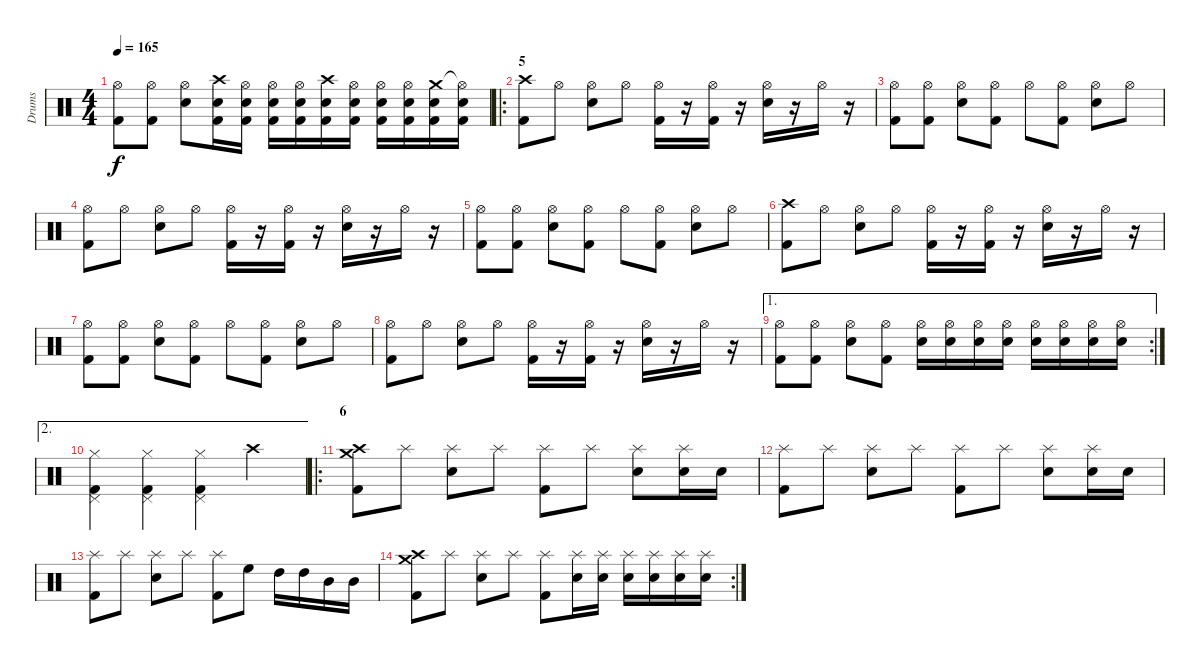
\track ("Drums" "Drums") {instrument percussion}
\staff {score}
\articulation defaults
\ts (4 4)
\tempo 165
\clef neutral
\ks c
("Hi-Hat (open)" "Kick (hit) 2").8{dy f} ("Hi-Hat (open)" "Kick (hit) 2").8 ("Hi-Hat (open)" "Snare (hit) 2").8 ("Crash high (hit)" "Kick (hit) 2" "Snare (hit) 2").16 ("Hi-Hat (open)" "Kick (hit) 2" "Snare (hit) 2").16 ("Hi-Hat (open)" "Kick (hit) 2" "Snare (hit) 2").16 ("Hi-Hat (open)" "Kick (hit) 2" "Snare (hit) 2").16 ("Crash high (hit)" "Kick (hit) 2" "Snare (hit) 2").16 ("Hi-Hat (open)" "Kick (hit) 2" "Snare (hit) 2").16 ("Hi-Hat (open)" "Kick (hit) 2" "Snare (hit) 2").16 ("Hi-Hat (open)" "Kick (hit) 2" "Snare (hit) 2").16 ("Crash medium (hit)" "Kick (hit) 2" "Snare (hit) 2").16 ("Hi-Hat (open)"{t} "Kick (hit) 2" "Snare (hit) 2").16 |
\ro
\section ("" "5")
("Crash high (hit)" "Kick (hit) 2").8 "Hi-Hat (open)".8 ("Hi-Hat (open)" "Snare (hit) 2").8 "Hi-Hat (open)".8 ("Hi-Hat (open)" "Kick (hit) 2").16 r.16 ("Hi-Hat (open)" "Kick (hit) 2").16 r.16 ("Hi-Hat (open)" "Snare (hit) 2").16 r.16 "Hi-Hat (open)".16 r.16 |
("Hi-Hat (open)" "Kick (hit) 2").8 ("Hi-Hat (open)" "Kick (hit) 2").8 ("Hi-Hat (open)" "Snare (hit) 2").8 ("Hi-Hat (open)" "Kick (hit) 2").8 "Hi-Hat (open)".8 ("Hi-Hat (open)" "Kick (hit) 2").8 ("Hi-Hat (open)" "Snare (hit) 2").8 "Hi-Hat (open)".8 |
("Hi-Hat (open)" "Kick (hit) 2").8 "Hi-Hat (open)".8 ("Hi-Hat (open)" "Snare (hit) 2").8 "Hi-Hat (open)".8 ("Hi-Hat (open)" "Kick (hit) 2").16 r.16 ("Hi-Hat (open)" "Kick (hit) 2").16 r.16 ("Hi-Hat (open)" "Snare (hit) 2").16 r.16 "Hi-Hat (open)".16 r.16 |
("Hi-Hat (open)" "Kick (hit) 2").8 ("Hi-Hat (open)" "Kick (hit) 2").8 ("Hi-Hat (open)" "Snare (hit) 2").8 ("Hi-Hat (open)" "Kick (hit) 2").8 "Hi-Hat (open)".8 ("Hi-Hat (open)" "Kick (hit) 2").8 ("Hi-Hat (open)" "Snare (hit) 2").8 "Hi-Hat (open)".8 |
("Crash high (hit)" "Kick (hit) 2").8 "Hi-Hat (open)".8 ("Hi-Hat (open)" "Snare (hit) 2").8 "Hi-Hat (open)".8 ("Hi-Hat (open)" "Kick (hit) 2").16 r.16 ("Hi-Hat (open)" "Kick (hit) 2").16 r.16 ("Hi-Hat (open)" "Snare (hit) 2").16 r.16 "Hi-Hat (open)".16 r.16 |
("Hi-Hat (open)" "Kick (hit) 2").8 ("Hi-Hat (open)" "Kick (hit) 2").8 ("Hi-Hat (open)" "Snare (hit) 2").8 ("Hi-Hat (open)" "Kick (hit) 2").8 "Hi-Hat (open)".8 ("Hi-Hat (open)" "Kick (hit) 2").8 ("Hi-Hat (open)" "Snare (hit) 2").8 "Hi-Hat (open)".8 |
("Hi-Hat (open)" "Kick (hit) 2").8 "Hi-Hat (open)".8 ("Hi-Hat (open)" "Snare (hit) 2").8 "Hi-Hat (open)".8 ("Hi-Hat (open)" "Kick (hit) 2").16 r.16 ("Hi-Hat (open)" "Kick (hit) 2").16 r.16 ("Hi-Hat (open)" "Snare (hit) 2").16 r.16 "Hi-Hat (open)".16 r.16 |
\ae 1
\rc 2
("Hi-Hat (open)" "Kick (hit) 2").8 ("Hi-Hat (open)" "Kick (hit) 2").8 ("Hi-Hat (open)" "Snare (hit) 2").8 ("Hi-Hat (open)" "Kick (hit) 2").8 ("Hi-Hat (open)" "Snare (hit) 2").16 ("Hi-Hat (open)" "Snare (hit) 2").16 ("Hi-Hat (open)" "Snare (hit) 2").16 ("Hi-Hat (open)" "Snare (hit) 2").16 ("Hi-Hat (open)" "Snare (hit) 2").16 ("Hi-Hat (open)" "Snare (hit) 2").16 ("Hi-Hat (open)" "Snare (hit) 2").16 ("Hi-Hat (open)" "Snare (hit) 2").16 |
\ae 2
("Pedal Hi-Hat (hit)" "Kick (hit) 2" "Hi-Hat (closed)").4 ("Pedal Hi-Hat (hit)" "Kick (hit) 2" "Hi-Hat (closed)").4 ("Pedal Hi-Hat (hit)" "Kick (hit) 2" "Hi-Hat (closed)").4 "Crash high (hit)".4 |
\ro
\section ("" "6")
("Crash medium (hit)" "Crash high (hit)" "Kick (hit) 2").8 "Splash (hit)".8 ("Splash (hit)" "Electric Snare (hit)").8 "Splash (hit)".8 ("Splash (hit)" "Kick (hit) 2").8 "Splash (hit)".8 ("Splash (hit)" "Electric Snare (hit)").8 ("Splash (hit)" "Electric Snare (hit)").16 "Electric Snare (hit)".16 |
("Splash (hit)" "Kick (hit) 2").8 "Splash (hit)".8 ("Splash (hit)" "Electric Snare (hit)").8 "Splash (hit)".8 ("Splash (hit)" "Kick (hit) 2").8 "Splash (hit)".8 ("Splash (hit)" "Electric Snare (hit)").8 ("Splash (hit)" "Electric Snare (hit)").16 "Electric Snare (hit)".16 |
("Splash (hit)" "Kick (hit) 2").8 "Splash (hit)".8 ("Splash (hit)" "Electric Snare (hit)").8 "Splash (hit)".8 ("Splash (hit)" "Kick (hit) 2").8 "High Floor Tom (hit)".8 "High Tom (hit)".16 "High Tom (hit)".16 "Mid Tom (hit)".16 "Mid Tom (hit)".16 |
\rc 2
("Crash medium (hit)" "Crash high (hit)" "Kick (hit) 2").8 "Splash (hit)".8 ("Splash (hit)" "Electric Snare (hit)").8 "Splash (hit)".8 ("Splash (hit)" "Kick (hit) 2").8 ("Splash (hit)" "Electric Snare (hit)").16 ("Splash (hit)" "Electric Snare (hit)").16 ("Splash (hit)" "Electric Snare (hit)").16 ("Splash (hit)" "Electric Snare (hit)").16 ("Splash (hit)" "Electric Snare (hit)").16 ("Splash (hit)" "Electric Snare (hit)").16
